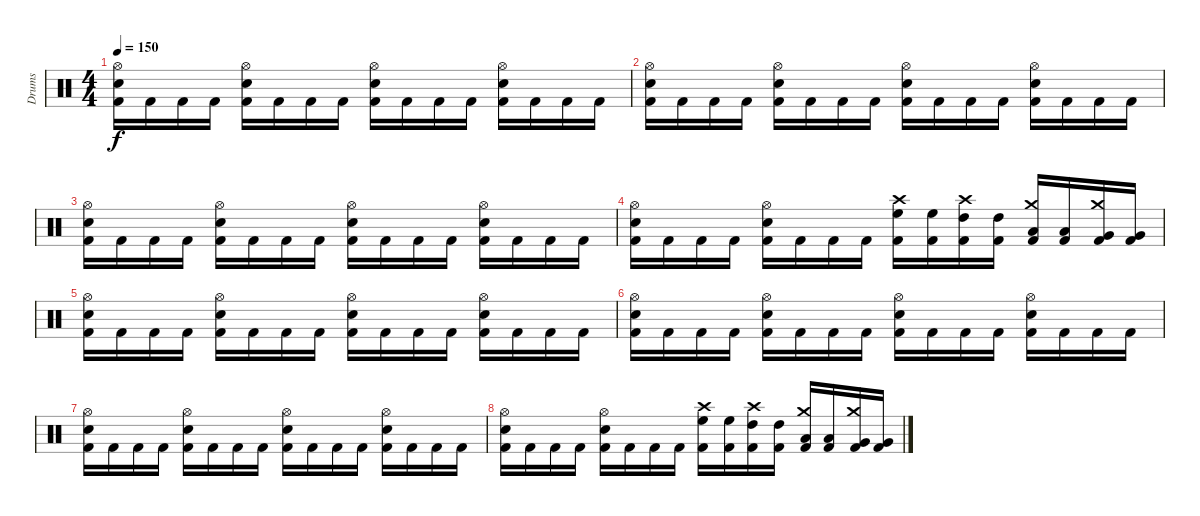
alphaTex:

\track ("Drums" "Drums") {instrument percussion}
\staff {score}
\articulation defaults
\ts (4 4)
\tempo 150
\clef neutral
\ks c
("Hi-Hat (open)" "Snare (hit) 2" "Kick (hit) 2").16{dy f} "Kick (hit) 2".16 "Kick (hit) 2".16 "Kick (hit) 2".16 ("Hi-Hat (open)" "Snare (hit) 2" "Kick (hit) 2").16 "Kick (hit) 2".16 "Kick (hit) 2".16 "Kick (hit) 2".16 ("Hi-Hat (open)" "Snare (hit) 2" "Kick (hit) 2").16 "Kick (hit) 2".16 "Kick (hit) 2".16 "Kick (hit) 2".16 ("Hi-Hat (open)" "Snare (hit) 2" "Kick (hit) 2").16 "Kick (hit) 2".16 "Kick (hit) 2".16 "Kick (hit) 2".16 |
("Hi-Hat (open)" "Snare (hit) 2" "Kick (hit) 2").16 "Kick (hit) 2".16 "Kick (hit) 2".16 "Kick (hit) 2".16 ("Hi-Hat (open)" "Snare (hit) 2" "Kick (hit) 2").16 "Kick (hit) 2".16 "Kick (hit) 2".16 "Kick (hit) 2".16 ("Hi-Hat (open)" "Snare (hit) 2" "Kick (hit) 2").16 "Kick (hit) 2".16 "Kick (hit) 2".16 "Kick (hit) 2".16 ("Hi-Hat (open)" "Snare (hit) 2" "Kick (hit) 2").16 "Kick (hit) 2".16 "Kick (hit) 2".16 "Kick (hit) 2".16 |
("Hi-Hat (open)" "Snare (hit) 2" "Kick (hit) 2").16 "Kick (hit) 2".16 "Kick (hit) 2".16 "Kick (hit) 2".16 ("Hi-Hat (open)" "Snare (hit) 2" "Kick (hit) 2").16 "Kick (hit) 2".16 "Kick (hit) 2".16 "Kick (hit) 2".16 ("Hi-Hat (open)" "Snare (hit) 2" "Kick (hit) 2").16 "Kick (hit) 2".16 "Kick (hit) 2".16 "Kick (hit) 2".16 ("Hi-Hat (open)" "Snare (hit) 2" "Kick (hit) 2").16 "Kick (hit) 2".16 "Kick (hit) 2".16 "Kick (hit) 2".16 |
("Hi-Hat (open)" "Snare (hit) 2" "Kick (hit) 2").16 "Kick (hit) 2".16 "Kick (hit) 2".16 "Kick (hit) 2".16 ("Hi-Hat (open)" "Snare (hit) 2" "Kick (hit) 2").16 "Kick (hit) 2".16 "Kick (hit) 2".16 "Kick (hit) 2".16 ("Crash high (hit)" "High Floor Tom (hit)" "Kick (hit) 2").16 ("High Floor Tom (hit)" "Kick (hit) 2").16 ("Crash high (hit)" "High Tom (hit)" "Kick (hit) 2").16 ("High Tom (hit)" "Kick (hit) 2").16 ("Crash medium (hit)" "Low Tom (hit)" "Kick (hit) 2").16 ("Low Tom (hit)" "Kick (hit) 2").16 ("Crash medium (hit)" "Very Low Tom (hit)" "Kick (hit) 2").16 ("Very Low Tom (hit)" "Kick (hit) 2").16 |
("Hi-Hat (open)" "Snare (hit) 2" "Kick (hit) 2").16 "Kick (hit) 2".16 "Kick (hit) 2".16 "Kick (hit) 2".16 ("Hi-Hat (open)" "Snare (hit) 2" "Kick (hit) 2").16 "Kick (hit) 2".16 "Kick (hit) 2".16 "Kick (hit) 2".16 ("Hi-Hat (open)" "Snare (hit) 2" "Kick (hit) 2").16 "Kick (hit) 2".16 "Kick (hit) 2".16 "Kick (hit) 2".16 ("Hi-Hat (open)" "Snare (hit) 2" "Kick (hit) 2").16 "Kick (hit) 2".16 "Kick (hit) 2".16 "Kick (hit) 2".16 |
("Hi-Hat (open)" "Snare (hit) 2" "Kick (hit) 2").16 "Kick (hit) 2".16 "Kick (hit) 2".16 "Kick (hit) 2".16 ("Hi-Hat (open)" "Snare (hit) 2" "Kick (hit) 2").16 "Kick (hit) 2".16 "Kick (hit) 2".16 "Kick (hit) 2".16 ("Hi-Hat (open)" "Snare (hit) 2" "Kick (hit) 2").16 "Kick (hit) 2".16 "Kick (hit) 2".16 "Kick (hit) 2".16 ("Hi-Hat (open)" "Snare (hit) 2" "Kick (hit) 2").16 "Kick (hit) 2".16 "Kick (hit) 2".16 "Kick (hit) 2".16 |
("Hi-Hat (open)" "Snare (hit) 2" "Kick (hit) 2").16 "Kick (hit) 2".16 "Kick (hit) 2".16 "Kick (hit) 2".16 ("Hi-Hat (open)" "Snare (hit) 2" "Kick (hit) 2").16 "Kick (hit) 2".16 "Kick (hit) 2".16 "Kick (hit) 2".16 ("Hi-Hat (open)" "Snare (hit) 2" "Kick (hit) 2").16 "Kick (hit) 2".16 "Kick (hit) 2".16 "Kick (hit) 2".16 ("Hi-Hat (open)" "Snare (hit) 2" "Kick (hit) 2").16 "Kick (hit) 2".16 "Kick (hit) 2".16 "Kick (hit) 2".16 |
("Hi-Hat (open)" "Snare (hit) 2" "Kick (hit) 2").16 "Kick (hit) 2".16 "Kick (hit) 2".16 "Kick (hit) 2".16 ("Hi-Hat (open)" "Snare (hit) 2" "Kick (hit) 2").16 "Kick (hit) 2".16 "Kick (hit) 2".16 "Kick (hit) 2".16 ("Crash high (hit)" "High Floor Tom (hit)" "Kick (hit) 2").16 ("High Floor Tom (hit)" "Kick (hit) 2").16 ("Crash high (hit)" "High Tom (hit)" "Kick (hit) 2").16 ("High Tom (hit)" "Kick (hit) 2").16 ("Crash medium (hit)" "Low Tom (hit)" "Kick (hit) 2").16 ("Low Tom (hit)" "Kick (hit) 2").16 ("Crash medium (hit)" "Very Low Tom (hit)" "Kick (hit) 2").16 ("Very Low Tom (hit)" "Kick (hit) 2").16
